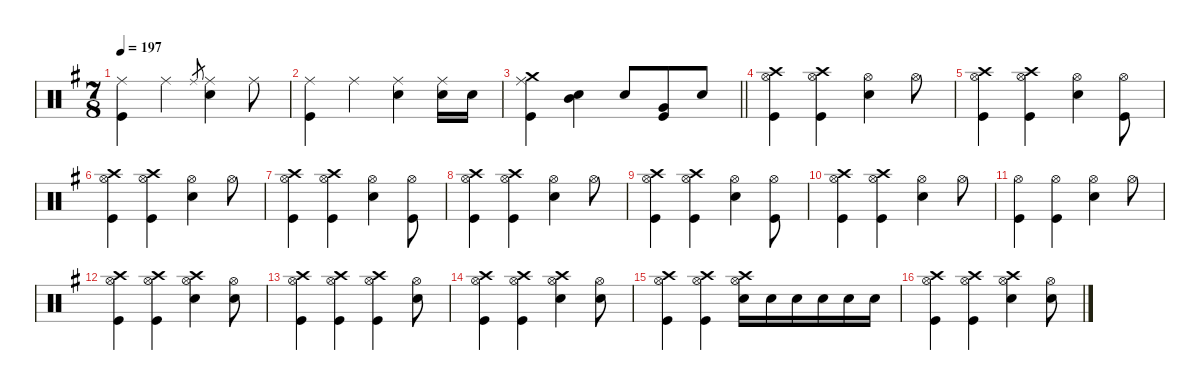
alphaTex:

\defaultSystemsLayout 4
\hideDynamics
\bracketExtendMode nobrackets
\singleTrackTrackNamePolicy hidden
\multiTrackTrackNamePolicy hidden
\firstSystemTrackNameMode fullname
\firstSystemTrackNameOrientation horizontal
\otherSystemsTrackNameOrientation horizontal
\track ("Drums" "drm.") {defaultSystemsLayout 4 instrument percussion}
\staff {score}
\articulation defaults
\ts (7 8)
\tempo 197
\clef neutral
\ks eminor
("Ride (middle)"{acc forcenatural} "Kick (hit)"{acc forcenatural}).4{dy f beam Down} "Ride (middle)"{acc forcenatural}.4{beam Down} "Ride (middle)"{acc forcenatural}.8{gr dy mf beam Up} ("Ride (middle)"{acc forcenatural} "Snare (hit) 2"{acc forcenatural}).4{dy f beam Down} "Ride (middle)"{acc forcenatural}.8{beam Down} |
("Ride (middle)"{acc forcenatural} "Kick (hit)"{acc forcenatural}).4{beam Down} "Ride (middle)"{acc forcenatural}.4{beam Down} ("Ride (middle)"{acc forcenatural} "Snare (hit) 2"{acc forcenatural}).4{beam Down} ("Ride (middle)"{acc forcenatural} "Snare (hit) 2"{acc forcenatural}).16{beam Down} "Snare (hit) 2"{acc forcenatural}.16{dy mf beam Down} |
\barLineRight lightlight
("Crash medium (hit)"{acc forcenatural} "Ride (middle)"{acc forcenatural} "Kick (hit)"{acc forcenatural}).4{dy mp beam Down} ("Snare (hit) 2"{acc forcenatural} "Mid Tom (hit)"{acc forcenatural}).4{dy f beam Down} "Snare (hit) 2"{acc forcenatural}.8{beam Up} ("Kick (hit)"{acc forcenatural} "Very Low Tom (hit)"{acc forcenatural}).8{beam Up} "Snare (hit) 2"{acc forcenatural}.8{beam Up} |
("Hi-Hat (open)"{acc forcenatural} "Crash high (hit)"{acc forcenatural} "Kick (hit)"{acc forcenatural}).4{beam Down} ("Hi-Hat (open)"{acc forcenatural} "Crash high (hit)"{acc forcenatural} "Kick (hit)"{acc forcenatural}).4{beam Down} ("Hi-Hat (open)"{acc forcenatural} "Snare (hit) 2"{acc forcenatural}).4{beam Down} "Hi-Hat (open)"{acc forcenatural}.8{beam Down} |
("Hi-Hat (open)"{acc forcenatural} "Crash high (hit)"{acc forcenatural} "Kick (hit)"{acc forcenatural}).4{beam Down} ("Hi-Hat (open)"{acc forcenatural} "Crash high (hit)"{acc forcenatural} "Kick (hit)"{acc forcenatural}).4{beam Down} ("Hi-Hat (open)"{acc forcenatural} "Snare (hit) 2"{acc forcenatural}).4{beam Down} ("Hi-Hat (open)"{acc forcenatural} "Kick (hit)"{acc forcenatural}).8{beam Down} |
("Hi-Hat (open)"{acc forcenatural} "Crash high (hit)"{acc forcenatural} "Kick (hit)"{acc forcenatural}).4{beam Down} ("Hi-Hat (open)"{acc forcenatural} "Crash high (hit)"{acc forcenatural} "Kick (hit)"{acc forcenatural}).4{beam Down} ("Hi-Hat (open)"{acc forcenatural} "Snare (hit) 2"{acc forcenatural}).4{beam Down} "Hi-Hat (open)"{acc forcenatural}.8{beam Down} |
("Hi-Hat (open)"{acc forcenatural} "Crash high (hit)"{acc forcenatural} "Kick (hit)"{acc forcenatural}).4{beam Down} ("Hi-Hat (open)"{acc forcenatural} "Crash high (hit)"{acc forcenatural} "Kick (hit)"{acc forcenatural}).4{beam Down} ("Hi-Hat (open)"{acc forcenatural} "Snare (hit) 2"{acc forcenatural}).4{beam Down} ("Hi-Hat (open)"{acc forcenatural} "Kick (hit)"{acc forcenatural}).8{beam Down} |
("Hi-Hat (open)"{acc forcenatural} "Crash high (hit)"{acc forcenatural} "Kick (hit)"{acc forcenatural}).4{beam Down} ("Hi-Hat (open)"{acc forcenatural} "Crash high (hit)"{acc forcenatural} "Kick (hit)"{acc forcenatural}).4{beam Down} ("Hi-Hat (open)"{acc forcenatural} "Snare (hit) 2"{acc forcenatural}).4{beam Down} "Hi-Hat (open)"{acc forcenatural}.8{beam Down} |
("Hi-Hat (open)"{acc forcenatural} "Crash high (hit)"{acc forcenatural} "Kick (hit)"{acc forcenatural}).4{beam Down} ("Hi-Hat (open)"{acc forcenatural} "Crash high (hit)"{acc forcenatural} "Kick (hit)"{acc forcenatural}).4{beam Down} ("Hi-Hat (open)"{acc forcenatural} "Snare (hit) 2"{acc forcenatural}).4{beam Down} ("Hi-Hat (open)"{acc forcenatural} "Kick (hit)"{acc forcenatural}).8{beam Down} |
("Hi-Hat (open)"{acc forcenatural} "Crash high (hit)"{acc forcenatural} "Kick (hit)"{acc forcenatural}).4{beam Down} ("Hi-Hat (open)"{acc forcenatural} "Crash high (hit)"{acc forcenatural} "Kick (hit)"{acc forcenatural}).4{beam Down} ("Hi-Hat (open)"{acc forcenatural} "Snare (hit) 2"{acc forcenatural}).4{beam Down} "Hi-Hat (open)"{acc forcenatural}.8{beam Down} |
("Hi-Hat (open)"{acc forcenatural} "Kick (hit)"{acc forcenatural}).4{beam Down} ("Hi-Hat (open)"{acc forcenatural} "Kick (hit)"{acc forcenatural}).4{beam Down} ("Hi-Hat (open)"{acc forcenatural} "Snare (hit) 2"{acc forcenatural}).4{beam Down} "Hi-Hat (open)"{acc forcenatural}.8{beam Down} |
("Crash high (hit)"{acc forcenatural} "Hi-Hat (open)"{acc forcenatural} "Kick (hit)"{acc forcenatural}).4{beam Down} ("Crash high (hit)"{acc forcenatural} "Hi-Hat (open)"{acc forcenatural} "Kick (hit)"{acc forcenatural}).4{beam Down} ("Crash high (hit)"{acc forcenatural} "Hi-Hat (open)"{acc forcenatural} "Snare (hit) 2"{acc forcenatural}).4{beam Down} ("Hi-Hat (open)"{acc forcenatural} "Snare (hit) 2"{acc forcenatural}).8{beam Down} |
("Crash high (hit)"{acc forcenatural} "Hi-Hat (open)"{acc forcenatural} "Kick (hit)"{acc forcenatural}).4{beam Down} ("Crash high (hit)"{acc forcenatural} "Hi-Hat (open)"{acc forcenatural} "Kick (hit)"{acc forcenatural}).4{beam Down} ("Crash high (hit)"{acc forcenatural} "Hi-Hat (open)"{acc forcenatural} "Kick (hit)"{acc forcenatural}).4{beam Down} ("Hi-Hat (open)"{acc forcenatural} "Snare (hit) 2"{acc forcenatural}).8{beam Down} |
("Crash high (hit)"{acc forcenatural} "Hi-Hat (open)"{acc forcenatural} "Kick (hit)"{acc forcenatural}).4{beam Down} ("Crash high (hit)"{acc forcenatural} "Hi-Hat (open)"{acc forcenatural} "Kick (hit)"{acc forcenatural}).4{beam Down} ("Crash high (hit)"{acc forcenatural} "Hi-Hat (open)"{acc forcenatural} "Snare (hit) 2"{acc forcenatural}).4{beam Down} ("Hi-Hat (open)"{acc forcenatural} "Snare (hit) 2"{acc forcenatural}).8{beam Down} |
("Crash high (hit)"{acc forcenatural} "Hi-Hat (open)"{acc forcenatural} "Kick (hit)"{acc forcenatural}).4{beam Down} ("Crash high (hit)"{acc forcenatural} "Hi-Hat (open)"{acc forcenatural} "Kick (hit)"{acc forcenatural}).4{beam Down} ("Crash high (hit)"{acc forcenatural} "Hi-Hat (open)"{acc forcenatural} "Snare (hit) 2"{acc forcenatural}).16{beam Down} "Snare (hit) 2"{acc forcenatural}.16{beam Down} "Snare (hit) 2"{acc forcenatural}.16{beam Down} "Snare (hit) 2"{acc forcenatural}.16{beam Down} "Snare (hit) 2"{acc forcenatural}.16{beam Down} "Snare (hit) 2"{acc forcenatural}.16{beam Down} |
("Crash high (hit)"{acc forcenatural} "Hi-Hat (open)"{acc forcenatural} "Kick (hit)"{acc forcenatural}).4{beam Down} ("Crash high (hit)"{acc forcenatural} "Hi-Hat (open)"{acc forcenatural} "Kick (hit)"{acc forcenatural}).4{beam Down} ("Crash high (hit)"{acc forcenatural} "Hi-Hat (open)"{acc forcenatural} "Snare (hit) 2"{acc forcenatural}).4{beam Down} ("Hi-Hat (open)"{acc forcenatural} "Snare (hit) 2"{acc forcenatural}).8{beam Down}
